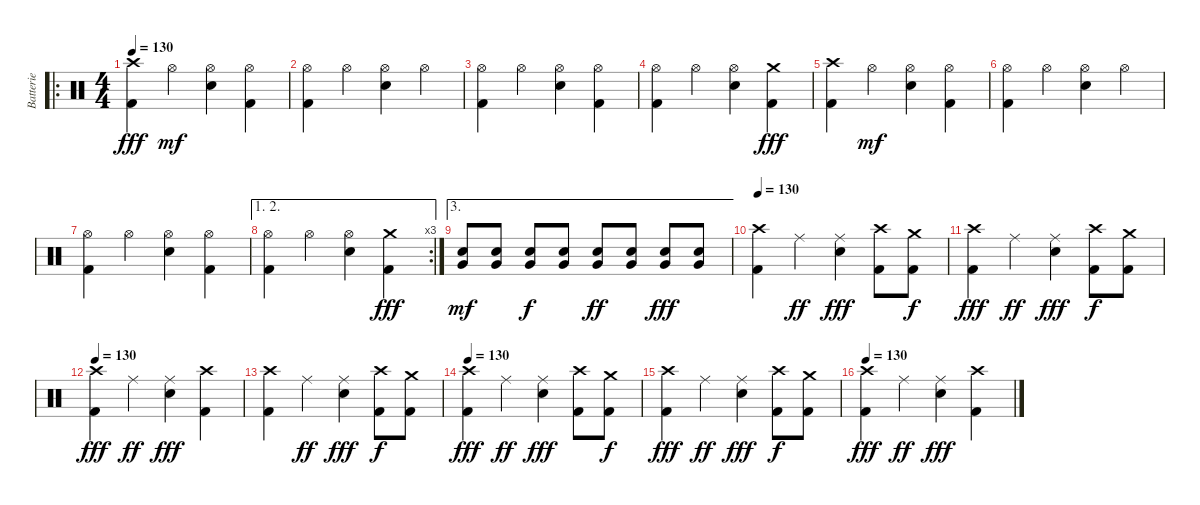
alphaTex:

\track ("Batterie" "Batterie") {instrument percussion}
\staff {score}
\articulation defaults
\ro
\ts (4 4)
\tempo 130
\clef neutral
\ks c
("Crash high (hit)" "Kick (hit) 2").4{dy fff} "Hi-Hat (open)".4{dy mf} ("Snare (hit) 2" "Hi-Hat (open)").4 ("Kick (hit) 2" "Hi-Hat (open)").4 |
("Kick (hit) 2" "Hi-Hat (open)").4 "Hi-Hat (open)".4 ("Snare (hit) 2" "Hi-Hat (open)").4 "Hi-Hat (open)".4 |
("Kick (hit) 2" "Hi-Hat (open)").4 "Hi-Hat (open)".4 ("Snare (hit) 2" "Hi-Hat (open)").4 ("Kick (hit) 2" "Hi-Hat (open)").4 |
("Kick (hit) 2" "Hi-Hat (open)").4 "Hi-Hat (open)".4 ("Snare (hit) 2" "Hi-Hat (open)").4 ("Crash medium (hit)" "Kick (hit) 2").4{dy fff} |
("Crash high (hit)" "Kick (hit) 2").4 "Hi-Hat (open)".4{dy mf} ("Snare (hit) 2" "Hi-Hat (open)").4 ("Kick (hit) 2" "Hi-Hat (open)").4 |
("Kick (hit) 2" "Hi-Hat (open)").4 "Hi-Hat (open)".4 ("Snare (hit) 2" "Hi-Hat (open)").4 "Hi-Hat (open)".4 |
("Kick (hit) 2" "Hi-Hat (open)").4 "Hi-Hat (open)".4 ("Snare (hit) 2" "Hi-Hat (open)").4 ("Kick (hit) 2" "Hi-Hat (open)").4 |
\ae (1 2)
\rc 3
("Kick (hit) 2" "Hi-Hat (open)").4 "Hi-Hat (open)".4 ("Snare (hit) 2" "Hi-Hat (open)").4 ("Crash medium (hit)" "Kick (hit) 2").4{dy fff} |
\ae 3
("Snare (hit) 2" "Very Low Tom (hit)").8{dy mf} ("Snare (hit) 2" "Very Low Tom (hit)").8 ("Snare (hit) 2" "Very Low Tom (hit)").8{dy f} ("Snare (hit) 2" "Very Low Tom (hit)").8 ("Snare (hit) 2" "Very Low Tom (hit)").8{dy ff} ("Snare (hit) 2" "Very Low Tom (hit)").8 ("Snare (hit) 2" "Very Low Tom (hit)").8{dy fff} ("Snare (hit) 2" "Very Low Tom (hit)").8 |
\tempo 130
("Crash high (hit)" "Kick (hit) 2").4 "Ride (middle)".4{dy ff} ("Ride (middle)" "Snare (hit) 2").4{dy fff} ("Crash high (hit)" "Kick (hit) 2").8 ("Crash medium (hit)" "Kick (hit) 2").8{dy f} |
("Crash high (hit)" "Kick (hit) 2").4{dy fff} "Ride (middle)".4{dy ff} ("Ride (middle)" "Snare (hit) 2").4{dy fff} ("Crash high (hit)" "Kick (hit) 2").8{dy f} ("Crash medium (hit)" "Kick (hit) 2").8 |
\tempo 130
("Crash high (hit)" "Kick (hit) 2").4{dy fff} "Ride (middle)".4{dy ff} ("Ride (middle)" "Snare (hit) 2").4{dy fff} ("Crash high (hit)" "Kick (hit) 2").4 |
("Crash high (hit)" "Kick (hit) 2").4 "Ride (middle)".4{dy ff} ("Ride (middle)" "Snare (hit) 2").4{dy fff} ("Crash high (hit)" "Kick (hit) 2").8{dy f} ("Crash medium (hit)" "Kick (hit) 2").8 |
\tempo 130
("Crash high (hit)" "Kick (hit) 2").4{dy fff} "Ride (middle)".4{dy ff} ("Ride (middle)" "Snare (hit) 2").4{dy fff} ("Crash high (hit)" "Kick (hit) 2").8 ("Crash medium (hit)" "Kick (hit) 2").8{dy f} |
("Crash high (hit)" "Kick (hit) 2").4{dy fff} "Ride (middle)".4{dy ff} ("Ride (middle)" "Snare (hit) 2").4{dy fff} ("Crash high (hit)" "Kick (hit) 2").8{dy f} ("Crash medium (hit)" "Kick (hit) 2").8 |
\tempo 130
("Crash high (hit)" "Kick (hit) 2").4{dy fff} "Ride (middle)".4{dy ff} ("Ride (middle)" "Snare (hit) 2").4{dy fff} ("Crash high (hit)" "Kick (hit) 2").4
